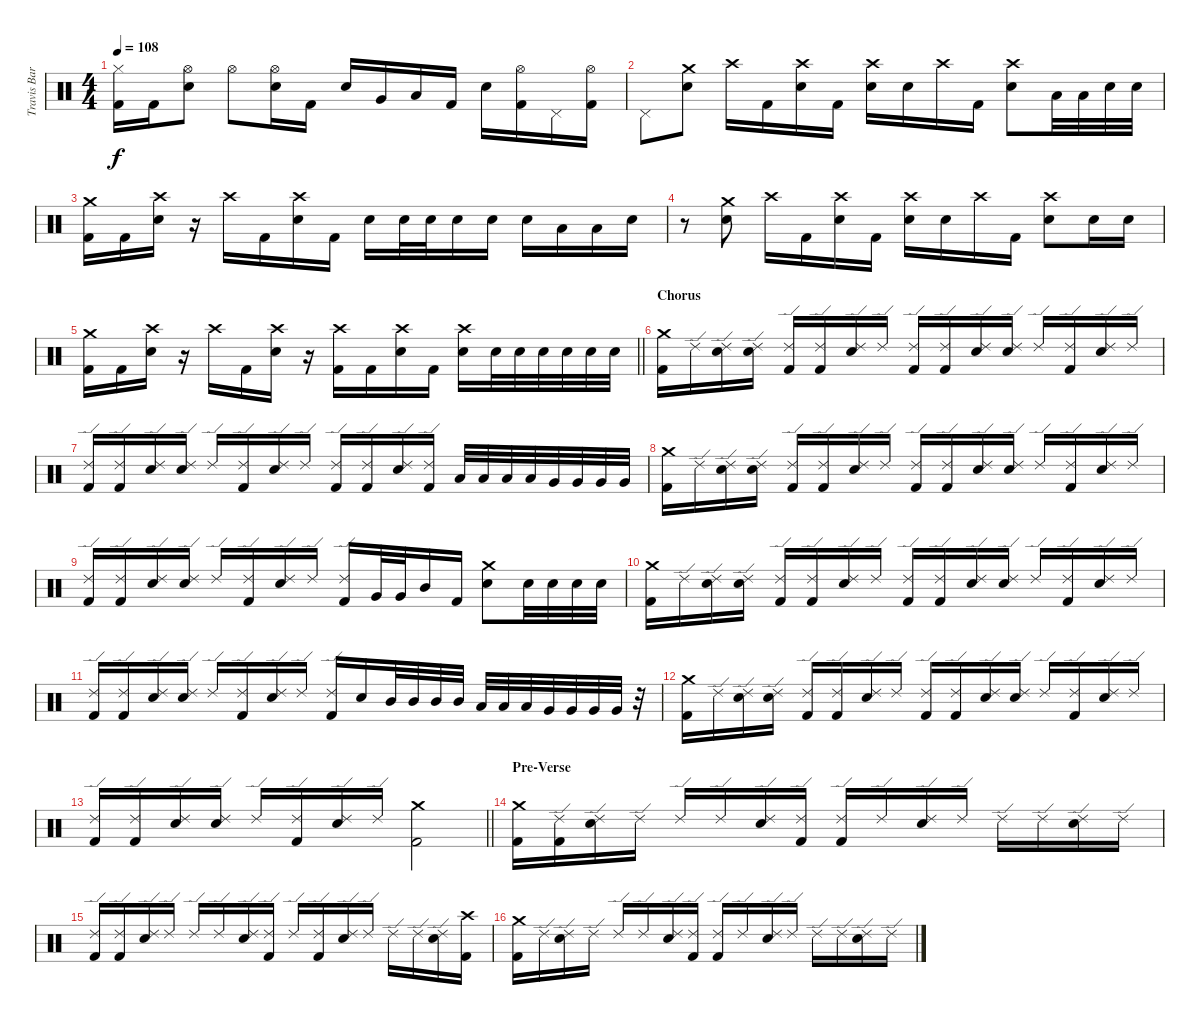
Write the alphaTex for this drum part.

\track ("Travis Barker" "Travis Bar") {instrument percussion}
\staff {score}
\articulation defaults
\ts (4 4)
\tempo 108
\clef neutral
\ks c
("Hi-Hat (closed)" "Kick (hit) 2").16{dy f} "Kick (hit) 2".16 ("Hi-Hat (open)" "Electric Snare (hit)").8 "Hi-Hat (open)".8 ("Hi-Hat (open)" "Electric Snare (hit)").16 "Kick (hit) 2".16 "Electric Snare (hit)".16 "Very Low Tom (hit)".16 "Low Tom (hit)".16 "Kick (hit) 2".16 "Electric Snare (hit)".16 ("Hi-Hat (open)" "Kick (hit) 2").16 "Pedal Hi-Hat (hit)".16 ("Hi-Hat (open)" "Kick (hit) 2").16 |
"Pedal Hi-Hat (hit)".8 ("Crash medium (hit)" "Electric Snare (hit)").8 "Crash high (hit)".16 "Kick (hit) 2".16 ("Crash high (hit)" "Electric Snare (hit)").16 "Kick (hit) 2".16 ("Crash high (hit)" "Electric Snare (hit)").16 "Electric Snare (hit)".16 "Crash high (hit)".16 "Kick (hit) 2".16 ("Crash high (hit)" "Electric Snare (hit)").8 "Low Tom (hit)".32 "Low Tom (hit)".32 "Electric Snare (hit)".32 "Electric Snare (hit)".32 |
("Crash medium (hit)" "Kick (hit) 2").16 "Kick (hit) 2".16 ("Crash high (hit)" "Electric Snare (hit)").16 r.16 "Crash high (hit)".16 "Kick (hit) 2".16 ("Crash high (hit)" "Electric Snare (hit)").16 "Kick (hit) 2".16 "Electric Snare (hit)".16 "Electric Snare (hit)".32 "Electric Snare (hit)".32 "Electric Snare (hit)".16 "Electric Snare (hit)".16 "Electric Snare (hit)".16 "Low Tom (hit)".16 "Low Tom (hit)".16 "Electric Snare (hit)".16 |
r.8 ("Crash medium (hit)" "Electric Snare (hit)").8 "Crash high (hit)".16 "Kick (hit) 2".16 ("Crash high (hit)" "Electric Snare (hit)").16 "Kick (hit) 2".16 ("Crash high (hit)" "Electric Snare (hit)").16 "Electric Snare (hit)".16 "Crash high (hit)".16 "Kick (hit) 2".16 ("Crash high (hit)" "Electric Snare (hit)").8 "Electric Snare (hit)".16 "Electric Snare (hit)".16 |
\barLineRight lightlight
("Crash medium (hit)" "Kick (hit) 2").16 "Kick (hit) 2".16 ("Crash high (hit)" "Electric Snare (hit)").16 r.16 "Crash high (hit)".16 "Kick (hit) 2".16 ("Crash high (hit)" "Electric Snare (hit)").16 r.16 ("Crash high (hit)" "Kick (hit) 2").16 "Kick (hit) 2".16 ("Crash high (hit)" "Electric Snare (hit)").16 "Kick (hit) 2".16 ("Crash high (hit)" "Electric Snare (hit)").16 "Electric Snare (hit)".32 "Electric Snare (hit)".32 "Electric Snare (hit)".32 "Electric Snare (hit)".32 "Electric Snare (hit)".32 "Electric Snare (hit)".32 |
\section ("" "Chorus")
("Crash medium (hit)" "Kick (hit) 2").16 "Ride (edge) 2".16 ("Ride (edge) 2" "Electric Snare (hit)").16 ("Ride (edge) 2" "Electric Snare (hit)").16 ("Ride (edge) 2" "Kick (hit) 2").16 ("Ride (edge) 2" "Kick (hit) 2").16 ("Ride (edge) 2" "Electric Snare (hit)").16 "Ride (edge) 2".16 ("Ride (edge) 2" "Kick (hit) 2").16 ("Ride (edge) 2" "Kick (hit) 2").16 ("Ride (edge) 2" "Electric Snare (hit)").16 ("Ride (edge) 2" "Electric Snare (hit)").16 "Ride (edge) 2".16 ("Ride (edge) 2" "Kick (hit) 2").16 ("Ride (edge) 2" "Electric Snare (hit)").16 "Ride (edge) 2".16 |
("Ride (edge) 2" "Kick (hit) 2").16 ("Ride (edge) 2" "Kick (hit) 2").16 ("Ride (edge) 2" "Electric Snare (hit)").16 ("Ride (edge) 2" "Electric Snare (hit)").16 "Ride (edge) 2".16 ("Ride (edge) 2" "Kick (hit) 2").16 ("Ride (edge) 2" "Electric Snare (hit)").16 "Ride (edge) 2".16 ("Ride (edge) 2" "Kick (hit) 2").16 ("Ride (edge) 2" "Kick (hit) 2").16 ("Ride (edge) 2" "Electric Snare (hit)").16 ("Ride (edge) 2" "Kick (hit) 2").16 "Low Tom (hit)".32 "Low Tom (hit)".32 "Low Tom (hit)".32 "Low Tom (hit)".32 "Very Low Tom (hit)".32 "Very Low Tom (hit)".32 "Very Low Tom (hit)".32 "Very Low Tom (hit)".32 |
("Crash medium (hit)" "Kick (hit) 2").16 "Ride (edge) 2".16 ("Ride (edge) 2" "Electric Snare (hit)").16 ("Ride (edge) 2" "Electric Snare (hit)").16 ("Ride (edge) 2" "Kick (hit) 2").16 ("Ride (edge) 2" "Kick (hit) 2").16 ("Ride (edge) 2" "Electric Snare (hit)").16 "Ride (edge) 2".16 ("Ride (edge) 2" "Kick (hit) 2").16 ("Ride (edge) 2" "Kick (hit) 2").16 ("Ride (edge) 2" "Electric Snare (hit)").16 ("Ride (edge) 2" "Electric Snare (hit)").16 "Ride (edge) 2".16 ("Ride (edge) 2" "Kick (hit) 2").16 ("Ride (edge) 2" "Electric Snare (hit)").16 "Ride (edge) 2".16 |
("Ride (edge) 2" "Kick (hit) 2").16 ("Ride (edge) 2" "Kick (hit) 2").16 ("Ride (edge) 2" "Electric Snare (hit)").16 ("Ride (edge) 2" "Electric Snare (hit)").16 "Ride (edge) 2".16 ("Ride (edge) 2" "Kick (hit) 2").16 ("Ride (edge) 2" "Electric Snare (hit)").16 "Ride (edge) 2".16 ("Ride (edge) 2" "Kick (hit) 2").16 "Very Low Tom (hit)".32 "Very Low Tom (hit)".32 "Mid Tom (hit)".16 "Kick (hit) 2".16 ("Crash medium (hit)" "Electric Snare (hit)").8 "Electric Snare (hit)".32 "Electric Snare (hit)".32 "Electric Snare (hit)".32 "Electric Snare (hit)".32 |
("Crash medium (hit)" "Kick (hit) 2").16 "Ride (edge) 2".16 ("Ride (edge) 2" "Electric Snare (hit)").16 ("Ride (edge) 2" "Electric Snare (hit)").16 ("Ride (edge) 2" "Kick (hit) 2").16 ("Ride (edge) 2" "Kick (hit) 2").16 ("Ride (edge) 2" "Electric Snare (hit)").16 "Ride (edge) 2".16 ("Ride (edge) 2" "Kick (hit) 2").16 ("Ride (edge) 2" "Kick (hit) 2").16 ("Ride (edge) 2" "Electric Snare (hit)").16 ("Ride (edge) 2" "Electric Snare (hit)").16 "Ride (edge) 2".16 ("Ride (edge) 2" "Kick (hit) 2").16 ("Ride (edge) 2" "Electric Snare (hit)").16 "Ride (edge) 2".16 |
("Ride (edge) 2" "Kick (hit) 2").16 ("Ride (edge) 2" "Kick (hit) 2").16 ("Ride (edge) 2" "Electric Snare (hit)").16 ("Ride (edge) 2" "Electric Snare (hit)").16 "Ride (edge) 2".16 ("Ride (edge) 2" "Kick (hit) 2").16 ("Ride (edge) 2" "Electric Snare (hit)").16 "Ride (edge) 2".16 ("Ride (edge) 2" "Kick (hit) 2").16 "Electric Snare (hit)".16 "Mid Tom (hit)".32 "Mid Tom (hit)".32 "Mid Tom (hit)".32 "Mid Tom (hit)".32 "Low Tom (hit)".32 "Low Tom (hit)".32 "Low Tom (hit)".32 "Very Low Tom (hit)".32 "Very Low Tom (hit)".32 "Very Low Tom (hit)".32 "Very Low Tom (hit)".32 r.32 |
("Crash medium (hit)" "Kick (hit) 2").16 "Ride (edge) 2".16 ("Ride (edge) 2" "Electric Snare (hit)").16 ("Ride (edge) 2" "Electric Snare (hit)").16 ("Ride (edge) 2" "Kick (hit) 2").16 ("Ride (edge) 2" "Kick (hit) 2").16 ("Ride (edge) 2" "Electric Snare (hit)").16 "Ride (edge) 2".16 ("Ride (edge) 2" "Kick (hit) 2").16 ("Ride (edge) 2" "Kick (hit) 2").16 ("Ride (edge) 2" "Electric Snare (hit)").16 ("Ride (edge) 2" "Electric Snare (hit)").16 "Ride (edge) 2".16 ("Ride (edge) 2" "Kick (hit) 2").16 ("Ride (edge) 2" "Electric Snare (hit)").16 "Ride (edge) 2".16 |
\barLineRight lightlight
("Ride (edge) 2" "Kick (hit) 2").16 ("Ride (edge) 2" "Kick (hit) 2").16 ("Ride (edge) 2" "Electric Snare (hit)").16 ("Ride (edge) 2" "Electric Snare (hit)").16 "Ride (edge) 2".16 ("Ride (edge) 2" "Kick (hit) 2").16 ("Ride (edge) 2" "Electric Snare (hit)").16 "Ride (edge) 2".16 ("Crash medium (hit)" "Kick (hit) 2").2 |
\section ("" "Pre-Verse")
("Crash medium (hit)" "Kick (hit) 2").16 ("Ride (edge) 2" "Kick (hit) 2").16 ("Ride (edge) 2" "Electric Snare (hit)").16 "Ride (edge) 2".16 "Ride (edge) 2".16 "Ride (edge) 2".16 ("Ride (edge) 2" "Electric Snare (hit)").16 ("Ride (edge) 2" "Kick (hit) 2").16 ("Ride (edge) 2" "Kick (hit) 2").16 "Ride (edge) 2".16 ("Ride (edge) 2" "Electric Snare (hit)").16 "Ride (edge) 2".16 "Ride (edge) 2".16 "Ride (edge) 2".16 ("Ride (edge) 2" "Electric Snare (hit)").16 "Ride (edge) 2".16 |
("Ride (edge) 2" "Kick (hit) 2").16 ("Ride (edge) 2" "Kick (hit) 2").16 ("Ride (edge) 2" "Electric Snare (hit)").16 "Ride (edge) 2".16 "Ride (edge) 2".16 "Ride (edge) 2".16 ("Ride (edge) 2" "Electric Snare (hit)").16 ("Ride (edge) 2" "Kick (hit) 2").16 "Ride (edge) 2".16 ("Ride (edge) 2" "Kick (hit) 2").16 ("Ride (edge) 2" "Electric Snare (hit)").16 "Ride (edge) 2".16 "Ride (edge) 2".16 "Ride (edge) 2".16 ("Ride (edge) 2" "Electric Snare (hit)").16 ("Crash high (hit)" "Kick (hit) 2").16 |
("Crash medium (hit)" "Kick (hit) 2").16 "Ride (edge) 2".16 ("Ride (edge) 2" "Electric Snare (hit)").16 "Ride (edge) 2".16 "Ride (edge) 2".16 "Ride (edge) 2".16 ("Ride (edge) 2" "Electric Snare (hit)").16 ("Ride (edge) 2" "Kick (hit) 2").16 ("Ride (edge) 2" "Kick (hit) 2").16 "Ride (edge) 2".16 ("Ride (edge) 2" "Electric Snare (hit)").16 "Ride (edge) 2".16 "Ride (edge) 2".16 "Ride (edge) 2".16 ("Ride (edge) 2" "Electric Snare (hit)").16 "Ride (edge) 2".16
